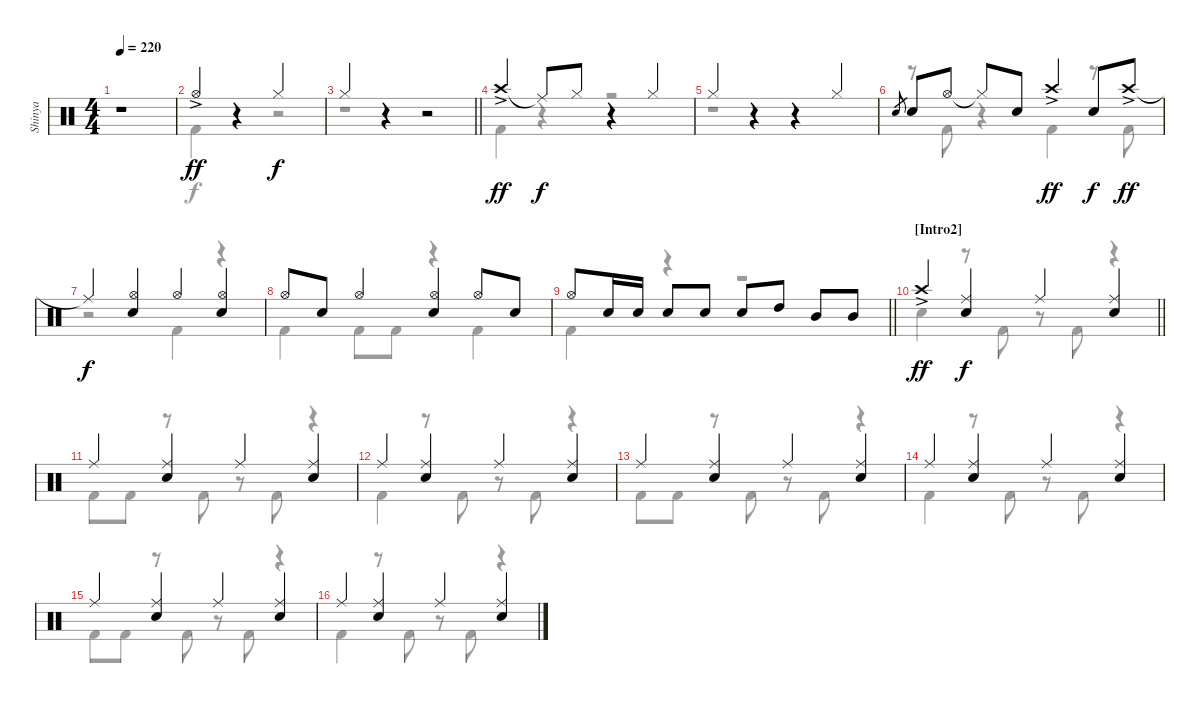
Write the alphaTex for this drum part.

\track ("Shinya" "Shinya") {instrument percussion}
\staff {score}
\articulation defaults
\voice
\ts (4 4)
\tempo 220
\clef neutral
\ks c
r.1{dy ff} |
"Hi-Hat (open)"{ac}.4 r.4 "Hi-Hat (closed)".2{dy f} |
\barLineRight lightlight "Hi-Hat (closed)".4
r.4 r.2 |
"Crash high (hit)"{ac}.4{dy ff} "Ride (middle)"{t}.8{dy f} "Hi-Hat (closed)".8 r.4 "Hi-Hat (closed)".4 |
"Hi-Hat (closed)".4 r.4 r.4 "Hi-Hat (closed)".4 |
"Snare (hit) 2"{h}.8{gr} "Snare (hit) 2".8 "Hi-Hat (open)".8 "Hi-Hat (closed)"{t}.8 "Snare (hit) 2".8 "Crash high (hit)"{ac}.4{dy ff} "Snare (hit) 2".8{dy f} "Crash high (hit)"{ac}.8{dy ff} |
"Ride (middle)"{t}.4{dy f} ("Hi-Hat (open)" "Snare (hit) 2").4 "Hi-Hat (open)".4 ("Hi-Hat (open)" "Snare (hit) 2").4 |
"Hi-Hat (open)".8 "Snare (hit) 2".8 "Hi-Hat (open)".4 ("Hi-Hat (open)" "Snare (hit) 2").4 "Hi-Hat (open)".8 "Snare (hit) 2".8 |
\barLineRight lightlight "Hi-Hat (open)".8 "Snare (hit) 2".16 "Snare (hit) 2".16 "Snare (hit) 2".8 "Snare (hit) 2".8 "Snare (hit) 2".8 "High Tom (hit)".8 "Mid Tom (hit)".8 "Mid Tom (hit)".8
|
\section ("" "[Intro2]")
\barLineRight lightlight "Crash high (hit)"{ac}.4{dy ff}
("Ride (middle)" "Snare (hit) 2").4{dy f} "Ride (middle)".4 ("Ride (middle)" "Snare (hit) 2").4 |
\section ("" "")
"Ride (middle)".4 ("Ride (middle)" "Snare (hit) 2").4 "Ride (middle)".4 ("Ride (middle)" "Snare (hit) 2").4 |
"Ride (middle)".4 ("Ride (middle)" "Snare (hit) 2").4 "Ride (middle)".4 ("Ride (middle)" "Snare (hit) 2").4 |
"Ride (middle)".4 ("Ride (middle)" "Snare (hit) 2").4 "Ride (middle)".4 ("Ride (middle)" "Snare (hit) 2").4 |
"Ride (middle)".4 ("Ride (middle)" "Snare (hit) 2").4 "Ride (middle)".4 ("Ride (middle)" "Snare (hit) 2").4 |
"Ride (middle)".4 ("Ride (middle)" "Snare (hit) 2").4 "Ride (middle)".4 ("Ride (middle)" "Snare (hit) 2").4 |
"Ride (middle)".4 ("Ride (middle)" "Snare (hit) 2").4 "Ride (middle)".4 ("Ride (middle)" "Snare (hit) 2").4
\voice
\clef neutral
\ottava regular
\simile none
\ks c
|
"Kick (hit) 2".4 r.4 r.2 |
\barLineRight lightlight
r.1 |
"Kick (hit) 2".4 r.4 r.2 |
r.1 |
r.8 "Kick (hit) 2".8 r.4 "Kick (hit) 2".4 r.8 "Kick (hit) 2".8 |
r.2 "Kick (hit) 2".4 r.4 |
"Kick (hit) 2".4 "Kick (hit) 2".8 "Kick (hit) 2".8 r.4 "Kick (hit) 2".4 |
\barLineRight lightlight "Kick (hit) 2".4
r.4 r.2 |
\barLineRight lightlight "Snare (hit) 2".4
r.8 "Kick (hit) 2".8 r.8 "Kick (hit) 2".8 r.4 |
"Kick (hit) 2".8 "Kick (hit) 2".8 r.8 "Kick (hit) 2".8 r.8 "Kick (hit) 2".8 r.4 |
"Kick (hit) 2".4 r.8 "Kick (hit) 2".8 r.8 "Kick (hit) 2".8 r.4 |
"Kick (hit) 2".8 "Kick (hit) 2".8 r.8 "Kick (hit) 2".8 r.8 "Kick (hit) 2".8 r.4 |
"Kick (hit) 2".4 r.8 "Kick (hit) 2".8 r.8 "Kick (hit) 2".8 r.4 |
"Kick (hit) 2".8 "Kick (hit) 2".8 r.8 "Kick (hit) 2".8 r.8 "Kick (hit) 2".8 r.4 |
"Kick (hit) 2".4 r.8 "Kick (hit) 2".8 r.8 "Kick (hit) 2".8 r.4
